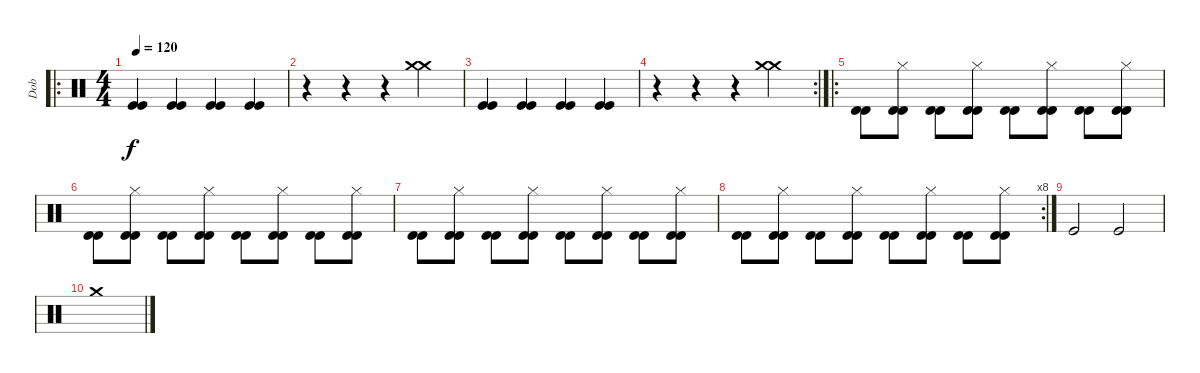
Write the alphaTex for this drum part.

\track ("Dob" "Dob") {instrument percussion}
\staff {score}
\articulation defaults
\ro
\ts (4 4)
\tempo 120
\clef neutral
\ks c
("Kick (hit)" "Kick (hit)").4{dy f} ("Kick (hit)" "Kick (hit)").4 ("Kick (hit)" "Kick (hit)").4 ("Kick (hit)" "Kick (hit)").4 |
r.4 r.4 r.4 ("Crash medium (hit)" "Crash medium (hit)").4 |
("Kick (hit)" "Kick (hit)").4 ("Kick (hit)" "Kick (hit)").4 ("Kick (hit)" "Kick (hit)").4 ("Kick (hit)" "Kick (hit)").4 |
\rc 2
r.4 r.4 r.4 ("Crash medium (hit)" "Crash medium (hit)").4 |
\ro
("Timbale high (hit)" "Timbale high (hit)").8 ("Hi-Hat (closed)" "Timbale high (hit)" "Timbale high (hit)").8 ("Timbale high (hit)" "Timbale high (hit)").8 ("Hi-Hat (closed)" "Timbale high (hit)" "Timbale high (hit)").8 ("Timbale high (hit)" "Timbale high (hit)").8 ("Hi-Hat (closed)" "Timbale high (hit)" "Timbale high (hit)").8 ("Timbale high (hit)" "Timbale high (hit)").8 ("Hi-Hat (closed)" "Timbale high (hit)" "Timbale high (hit)").8 |
("Timbale high (hit)" "Timbale high (hit)").8 ("Hi-Hat (closed)" "Timbale high (hit)" "Timbale high (hit)").8 ("Timbale high (hit)" "Timbale high (hit)").8 ("Hi-Hat (closed)" "Timbale high (hit)" "Timbale high (hit)").8 ("Timbale high (hit)" "Timbale high (hit)").8 ("Hi-Hat (closed)" "Timbale high (hit)" "Timbale high (hit)").8 ("Timbale high (hit)" "Timbale high (hit)").8 ("Hi-Hat (closed)" "Timbale high (hit)" "Timbale high (hit)").8 |
("Timbale high (hit)" "Timbale high (hit)").8 ("Hi-Hat (closed)" "Timbale high (hit)" "Timbale high (hit)").8 ("Timbale high (hit)" "Timbale high (hit)").8 ("Hi-Hat (closed)" "Timbale high (hit)" "Timbale high (hit)").8 ("Timbale high (hit)" "Timbale high (hit)").8 ("Hi-Hat (closed)" "Timbale high (hit)" "Timbale high (hit)").8 ("Timbale high (hit)" "Timbale high (hit)").8 ("Hi-Hat (closed)" "Timbale high (hit)" "Timbale high (hit)").8 |
\rc 8
("Timbale high (hit)" "Timbale high (hit)").8 ("Hi-Hat (closed)" "Timbale high (hit)" "Timbale high (hit)").8 ("Timbale high (hit)" "Timbale high (hit)").8 ("Hi-Hat (closed)" "Timbale high (hit)" "Timbale high (hit)").8 ("Timbale high (hit)" "Timbale high (hit)").8 ("Hi-Hat (closed)" "Timbale high (hit)" "Timbale high (hit)").8 ("Timbale high (hit)" "Timbale high (hit)").8 ("Hi-Hat (closed)" "Timbale high (hit)" "Timbale high (hit)").8 |
"Kick (hit)".2 "Kick (hit)".2 |
"Crash medium (hit)".1
